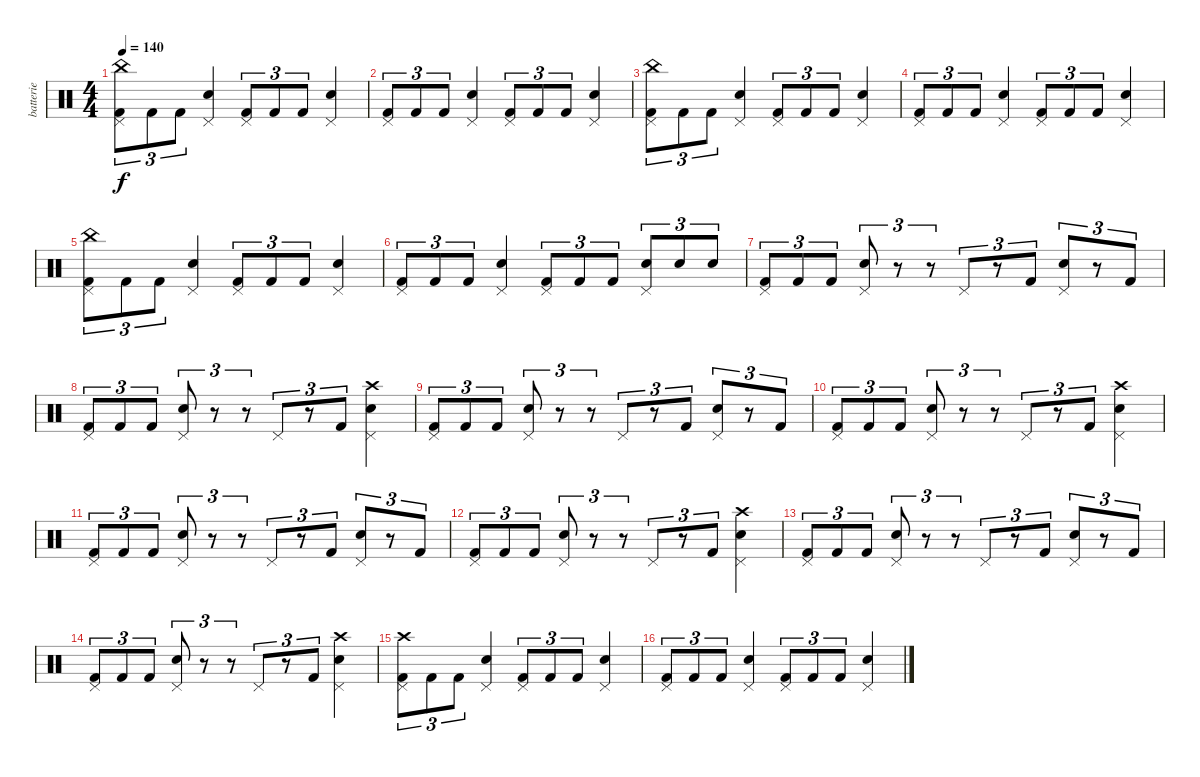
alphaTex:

\track ("batterie" "batterie") {instrument percussion}
\staff {score}
\articulation defaults
\ts (4 4)
\tempo 140
\clef neutral
\ks c
("China (hit)" "Kick (hit) 2" "Pedal Hi-Hat (hit)").8{tu (3 2) dy f} "Kick (hit) 2".8{tu (3 2)} "Kick (hit) 2".8{tu (3 2)} ("Snare (hit) 2" "Pedal Hi-Hat (hit)").4 ("Kick (hit) 2" "Pedal Hi-Hat (hit)").8{tu (3 2)} "Kick (hit) 2".8{tu (3 2)} "Kick (hit) 2".8{tu (3 2)} ("Snare (hit) 2" "Pedal Hi-Hat (hit)").4 |
("Kick (hit) 2" "Pedal Hi-Hat (hit)").8{tu (3 2)} "Kick (hit) 2".8{tu (3 2)} "Kick (hit) 2".8{tu (3 2)} ("Snare (hit) 2" "Pedal Hi-Hat (hit)").4 ("Kick (hit) 2" "Pedal Hi-Hat (hit)").8{tu (3 2)} "Kick (hit) 2".8{tu (3 2)} "Kick (hit) 2".8{tu (3 2)} ("Snare (hit) 2" "Pedal Hi-Hat (hit)").4 |
("China (hit)" "Kick (hit) 2" "Pedal Hi-Hat (hit)").8{tu (3 2)} "Kick (hit) 2".8{tu (3 2)} "Kick (hit) 2".8{tu (3 2)} ("Snare (hit) 2" "Pedal Hi-Hat (hit)").4 ("Kick (hit) 2" "Pedal Hi-Hat (hit)").8{tu (3 2)} "Kick (hit) 2".8{tu (3 2)} "Kick (hit) 2".8{tu (3 2)} ("Snare (hit) 2" "Pedal Hi-Hat (hit)").4 |
("Kick (hit) 2" "Pedal Hi-Hat (hit)").8{tu (3 2)} "Kick (hit) 2".8{tu (3 2)} "Kick (hit) 2".8{tu (3 2)} ("Snare (hit) 2" "Pedal Hi-Hat (hit)").4 ("Kick (hit) 2" "Pedal Hi-Hat (hit)").8{tu (3 2)} "Kick (hit) 2".8{tu (3 2)} "Kick (hit) 2".8{tu (3 2)} ("Snare (hit) 2" "Pedal Hi-Hat (hit)").4 |
("China (hit)" "Kick (hit) 2" "Pedal Hi-Hat (hit)").8{tu (3 2)} "Kick (hit) 2".8{tu (3 2)} "Kick (hit) 2".8{tu (3 2)} ("Snare (hit) 2" "Pedal Hi-Hat (hit)").4 ("Kick (hit) 2" "Pedal Hi-Hat (hit)").8{tu (3 2)} "Kick (hit) 2".8{tu (3 2)} "Kick (hit) 2".8{tu (3 2)} ("Snare (hit) 2" "Pedal Hi-Hat (hit)").4 |
("Kick (hit) 2" "Pedal Hi-Hat (hit)").8{tu (3 2)} "Kick (hit) 2".8{tu (3 2)} "Kick (hit) 2".8{tu (3 2)} ("Snare (hit) 2" "Pedal Hi-Hat (hit)").4 ("Kick (hit) 2" "Pedal Hi-Hat (hit)").8{tu (3 2)} "Kick (hit) 2".8{tu (3 2)} "Kick (hit) 2".8{tu (3 2)} ("Snare (hit) 2" "Pedal Hi-Hat (hit)").8{tu (3 2)} "Snare (hit) 2".8{tu (3 2)} "Snare (hit) 2".8{tu (3 2)} |
("Kick (hit) 2" "Pedal Hi-Hat (hit)").8{tu (3 2)} "Kick (hit) 2".8{tu (3 2)} "Kick (hit) 2".8{tu (3 2)} ("Snare (hit) 2" "Pedal Hi-Hat (hit)").8{tu (3 2)} r.8{tu (3 2)} r.8{tu (3 2)} "Pedal Hi-Hat (hit)".8{tu (3 2)} r.8{tu (3 2)} "Kick (hit) 2".8{tu (3 2)} ("Snare (hit) 2" "Pedal Hi-Hat (hit)").8{tu (3 2)} r.8{tu (3 2)} "Kick (hit) 2".8{tu (3 2)} |
("Kick (hit) 2" "Pedal Hi-Hat (hit)").8{tu (3 2)} "Kick (hit) 2".8{tu (3 2)} "Kick (hit) 2".8{tu (3 2)} ("Snare (hit) 2" "Pedal Hi-Hat (hit)").8{tu (3 2)} r.8{tu (3 2)} r.8{tu (3 2)} "Pedal Hi-Hat (hit)".8{tu (3 2)} r.8{tu (3 2)} "Kick (hit) 2".8{tu (3 2)} ("Crash high (hit)" "Snare (hit) 2" "Pedal Hi-Hat (hit)").4 |
("Kick (hit) 2" "Pedal Hi-Hat (hit)").8{tu (3 2)} "Kick (hit) 2".8{tu (3 2)} "Kick (hit) 2".8{tu (3 2)} ("Snare (hit) 2" "Pedal Hi-Hat (hit)").8{tu (3 2)} r.8{tu (3 2)} r.8{tu (3 2)} "Pedal Hi-Hat (hit)".8{tu (3 2)} r.8{tu (3 2)} "Kick (hit) 2".8{tu (3 2)} ("Snare (hit) 2" "Pedal Hi-Hat (hit)").8{tu (3 2)} r.8{tu (3 2)} "Kick (hit) 2".8{tu (3 2)} |
("Kick (hit) 2" "Pedal Hi-Hat (hit)").8{tu (3 2)} "Kick (hit) 2".8{tu (3 2)} "Kick (hit) 2".8{tu (3 2)} ("Snare (hit) 2" "Pedal Hi-Hat (hit)").8{tu (3 2)} r.8{tu (3 2)} r.8{tu (3 2)} "Pedal Hi-Hat (hit)".8{tu (3 2)} r.8{tu (3 2)} "Kick (hit) 2".8{tu (3 2)} ("Crash high (hit)" "Snare (hit) 2" "Pedal Hi-Hat (hit)").4 |
("Kick (hit) 2" "Pedal Hi-Hat (hit)").8{tu (3 2)} "Kick (hit) 2".8{tu (3 2)} "Kick (hit) 2".8{tu (3 2)} ("Snare (hit) 2" "Pedal Hi-Hat (hit)").8{tu (3 2)} r.8{tu (3 2)} r.8{tu (3 2)} "Pedal Hi-Hat (hit)".8{tu (3 2)} r.8{tu (3 2)} "Kick (hit) 2".8{tu (3 2)} ("Snare (hit) 2" "Pedal Hi-Hat (hit)").8{tu (3 2)} r.8{tu (3 2)} "Kick (hit) 2".8{tu (3 2)} |
("Kick (hit) 2" "Pedal Hi-Hat (hit)").8{tu (3 2)} "Kick (hit) 2".8{tu (3 2)} "Kick (hit) 2".8{tu (3 2)} ("Snare (hit) 2" "Pedal Hi-Hat (hit)").8{tu (3 2)} r.8{tu (3 2)} r.8{tu (3 2)} "Pedal Hi-Hat (hit)".8{tu (3 2)} r.8{tu (3 2)} "Kick (hit) 2".8{tu (3 2)} ("Crash high (hit)" "Snare (hit) 2" "Pedal Hi-Hat (hit)").4 |
("Kick (hit) 2" "Pedal Hi-Hat (hit)").8{tu (3 2)} "Kick (hit) 2".8{tu (3 2)} "Kick (hit) 2".8{tu (3 2)} ("Snare (hit) 2" "Pedal Hi-Hat (hit)").8{tu (3 2)} r.8{tu (3 2)} r.8{tu (3 2)} "Pedal Hi-Hat (hit)".8{tu (3 2)} r.8{tu (3 2)} "Kick (hit) 2".8{tu (3 2)} ("Snare (hit) 2" "Pedal Hi-Hat (hit)").8{tu (3 2)} r.8{tu (3 2)} "Kick (hit) 2".8{tu (3 2)} |
("Kick (hit) 2" "Pedal Hi-Hat (hit)").8{tu (3 2)} "Kick (hit) 2".8{tu (3 2)} "Kick (hit) 2".8{tu (3 2)} ("Snare (hit) 2" "Pedal Hi-Hat (hit)").8{tu (3 2)} r.8{tu (3 2)} r.8{tu (3 2)} "Pedal Hi-Hat (hit)".8{tu (3 2)} r.8{tu (3 2)} "Kick (hit) 2".8{tu (3 2)} ("Crash high (hit)" "Snare (hit) 2" "Pedal Hi-Hat (hit)").4 |
("Crash high (hit)" "Kick (hit) 2" "Pedal Hi-Hat (hit)").8{tu (3 2)} "Kick (hit) 2".8{tu (3 2)} "Kick (hit) 2".8{tu (3 2)} ("Snare (hit) 2" "Pedal Hi-Hat (hit)").4 ("Kick (hit) 2" "Pedal Hi-Hat (hit)").8{tu (3 2)} "Kick (hit) 2".8{tu (3 2)} "Kick (hit) 2".8{tu (3 2)} ("Snare (hit) 2" "Pedal Hi-Hat (hit)").4 |
("Kick (hit) 2" "Pedal Hi-Hat (hit)").8{tu (3 2)} "Kick (hit) 2".8{tu (3 2)} "Kick (hit) 2".8{tu (3 2)} ("Snare (hit) 2" "Pedal Hi-Hat (hit)").4 ("Kick (hit) 2" "Pedal Hi-Hat (hit)").8{tu (3 2)} "Kick (hit) 2".8{tu (3 2)} "Kick (hit) 2".8{tu (3 2)} ("Snare (hit) 2" "Pedal Hi-Hat (hit)").4
